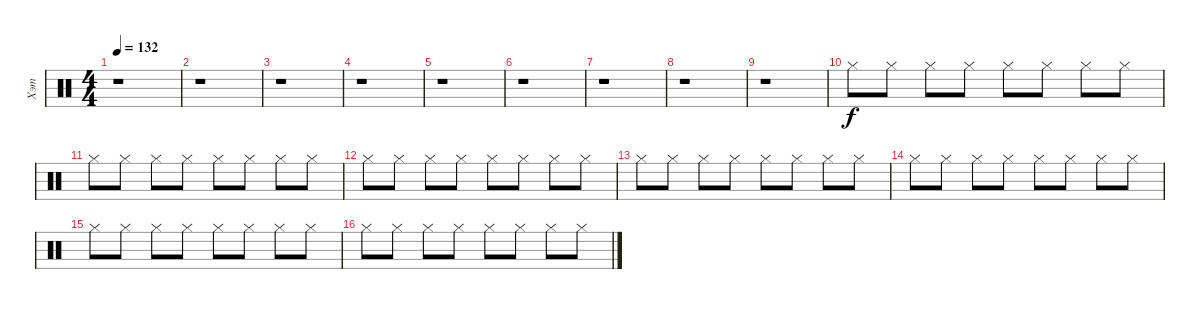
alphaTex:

\track ("Хэт" "Хэт") {instrument percussion}
\staff {score}
\articulation defaults
\ts (4 4)
\tempo 132
\clef neutral
\ks c
r.1{dy f} |
r.1 |
r.1 |
r.1 |
r.1 |
r.1 |
r.1 |
r.1 |
r.1 |
"Hi-Hat (closed)".8 "Hi-Hat (closed)".8 "Hi-Hat (closed)".8 "Hi-Hat (closed)".8 "Hi-Hat (closed)".8 "Hi-Hat (closed)".8 "Hi-Hat (closed)".8 "Hi-Hat (closed)".8 |
"Hi-Hat (closed)".8 "Hi-Hat (closed)".8 "Hi-Hat (closed)".8 "Hi-Hat (closed)".8 "Hi-Hat (closed)".8 "Hi-Hat (closed)".8 "Hi-Hat (closed)".8 "Hi-Hat (closed)".8 |
"Hi-Hat (closed)".8 "Hi-Hat (closed)".8 "Hi-Hat (closed)".8 "Hi-Hat (closed)".8 "Hi-Hat (closed)".8 "Hi-Hat (closed)".8 "Hi-Hat (closed)".8 "Hi-Hat (closed)".8 |
"Hi-Hat (closed)".8 "Hi-Hat (closed)".8 "Hi-Hat (closed)".8 "Hi-Hat (closed)".8 "Hi-Hat (closed)".8 "Hi-Hat (closed)".8 "Hi-Hat (closed)".8 "Hi-Hat (closed)".8 |
"Hi-Hat (closed)".8 "Hi-Hat (closed)".8 "Hi-Hat (closed)".8 "Hi-Hat (closed)".8 "Hi-Hat (closed)".8 "Hi-Hat (closed)".8 "Hi-Hat (closed)".8 "Hi-Hat (closed)".8 |
"Hi-Hat (closed)".8 "Hi-Hat (closed)".8 "Hi-Hat (closed)".8 "Hi-Hat (closed)".8 "Hi-Hat (closed)".8 "Hi-Hat (closed)".8 "Hi-Hat (closed)".8 "Hi-Hat (closed)".8 |
"Hi-Hat (closed)".8 "Hi-Hat (closed)".8 "Hi-Hat (closed)".8 "Hi-Hat (closed)".8 "Hi-Hat (closed)".8 "Hi-Hat (closed)".8 "Hi-Hat (closed)".8 "Hi-Hat (closed)".8
